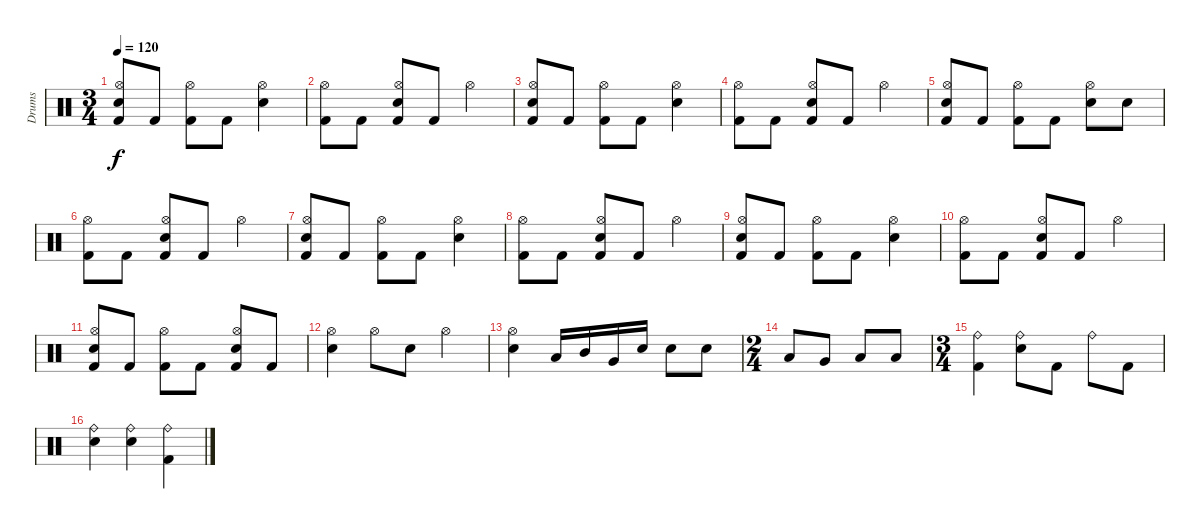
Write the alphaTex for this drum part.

\track ("Drums" "Drums") {instrument percussion}
\staff {score}
\articulation defaults
\ts (3 4)
\tempo 120
\clef neutral
\ks c
("Electric Snare (hit)" "Hi-Hat (open)" "Kick (hit) 2").8{dy f} "Kick (hit) 2".8 ("Hi-Hat (open)" "Kick (hit) 2").8 "Kick (hit) 2".8 ("Electric Snare (hit)" "Hi-Hat (open)").4 |
("Hi-Hat (open)" "Kick (hit) 2").8 "Kick (hit) 2".8 ("Electric Snare (hit)" "Hi-Hat (open)" "Kick (hit) 2").8 "Kick (hit) 2".8 "Hi-Hat (open)".4 |
("Electric Snare (hit)" "Hi-Hat (open)" "Kick (hit) 2").8 "Kick (hit) 2".8 ("Hi-Hat (open)" "Kick (hit) 2").8 "Kick (hit) 2".8 ("Electric Snare (hit)" "Hi-Hat (open)").4 |
("Hi-Hat (open)" "Kick (hit) 2").8 "Kick (hit) 2".8 ("Electric Snare (hit)" "Hi-Hat (open)" "Kick (hit) 2").8 "Kick (hit) 2".8 "Hi-Hat (open)".4 |
("Electric Snare (hit)" "Hi-Hat (open)" "Kick (hit) 2").8 "Kick (hit) 2".8 ("Hi-Hat (open)" "Kick (hit) 2").8 "Kick (hit) 2".8 ("Electric Snare (hit)" "Hi-Hat (open)").8 "Electric Snare (hit)".8 |
("Hi-Hat (open)" "Kick (hit) 2").8 "Kick (hit) 2".8 ("Electric Snare (hit)" "Hi-Hat (open)" "Kick (hit) 2").8 "Kick (hit) 2".8 "Hi-Hat (open)".4 |
("Electric Snare (hit)" "Hi-Hat (open)" "Kick (hit) 2").8 "Kick (hit) 2".8 ("Hi-Hat (open)" "Kick (hit) 2").8 "Kick (hit) 2".8 ("Electric Snare (hit)" "Hi-Hat (open)").4 |
("Hi-Hat (open)" "Kick (hit) 2").8 "Kick (hit) 2".8 ("Electric Snare (hit)" "Hi-Hat (open)" "Kick (hit) 2").8 "Kick (hit) 2".8 "Hi-Hat (open)".4 |
("Electric Snare (hit)" "Hi-Hat (open)" "Kick (hit) 2").8 "Kick (hit) 2".8 ("Hi-Hat (open)" "Kick (hit) 2").8 "Kick (hit) 2".8 ("Electric Snare (hit)" "Hi-Hat (open)").4 |
("Hi-Hat (open)" "Kick (hit) 2").8 "Kick (hit) 2".8 ("Electric Snare (hit)" "Hi-Hat (open)" "Kick (hit) 2").8 "Kick (hit) 2".8 "Hi-Hat (open)".4 |
("Electric Snare (hit)" "Hi-Hat (open)" "Kick (hit) 2").8 "Kick (hit) 2".8 ("Hi-Hat (open)" "Kick (hit) 2").8 "Kick (hit) 2".8 ("Electric Snare (hit)" "Hi-Hat (open)" "Kick (hit) 2").8 "Kick (hit) 2".8 |
("Electric Snare (hit)" "Hi-Hat (open)").4 "Hi-Hat (open)".8 "Electric Snare (hit)".8 "Hi-Hat (open)".4 |
("Electric Snare (hit)" "Hi-Hat (open)").4 "Low Tom (hit)".16 "Mid Tom (hit)".16 "Very Low Tom (hit)".16 "Electric Snare (hit)".16 "Electric Snare (hit)".8 "Electric Snare (hit)".8 |
\ts (2 4)
"Low Floor Tom (hit)".8 "Very Low Tom (hit)".8 "Low Tom (hit)".8 "Low Tom (hit)".8 |
\ts (3 4)
("Ride (bell)" "Kick (hit) 2").4 ("Electric Snare (hit)" "Ride (bell)").8 "Kick (hit) 2".8 "Ride (bell)".8 "Kick (hit) 2".8 |
("Electric Snare (hit)" "Ride (bell)").4 ("Electric Snare (hit)" "Ride (bell)").4 ("Ride (bell)" "Kick (hit) 2").4
